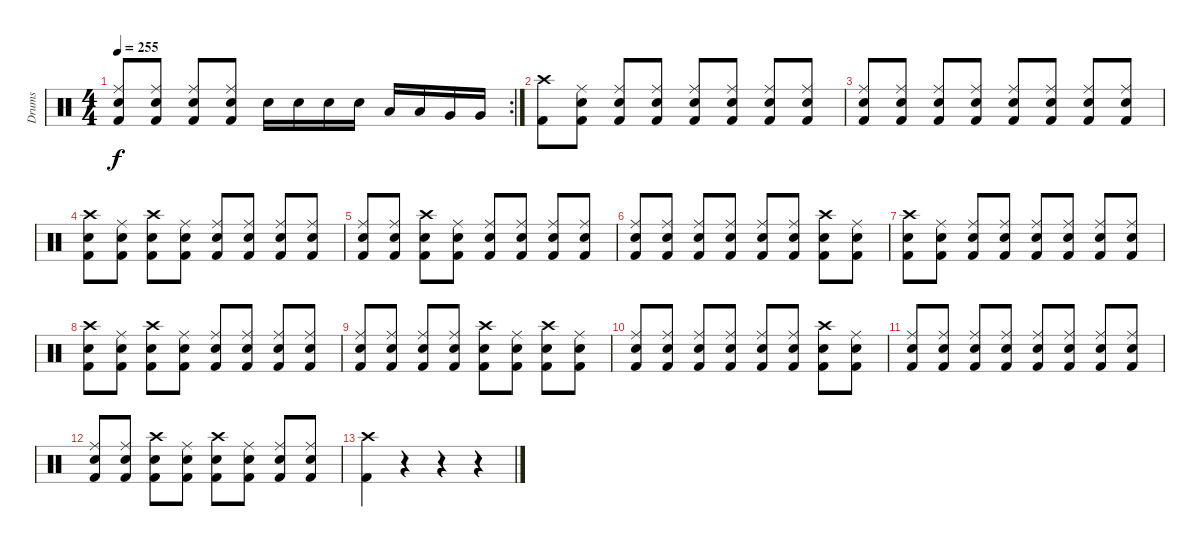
\track ("Drums" "Drums") {instrument percussion}
\staff {score}
\articulation defaults
\rc 2
\ts (4 4)
\tempo 255
\clef neutral
\ks c
("Snare (hit) 2" "Ride (middle)" "Kick (hit) 2").8{dy f} ("Snare (hit) 2" "Ride (middle)" "Kick (hit) 2").8 ("Snare (hit) 2" "Ride (middle)" "Kick (hit) 2").8 ("Snare (hit) 2" "Ride (middle)" "Kick (hit) 2").8 "Snare (hit) 2".16 "Snare (hit) 2".16 "Snare (hit) 2".16 "Snare (hit) 2".16 "Low Floor Tom (hit)".16 "Low Floor Tom (hit)".16 "Very Low Tom (hit)".16 "Very Low Tom (hit)".16 |
("Crash high (hit)" "Kick (hit) 2").8 ("Snare (hit) 2" "Ride (middle)" "Kick (hit) 2").8 ("Snare (hit) 2" "Ride (middle)" "Kick (hit) 2").8 ("Snare (hit) 2" "Ride (middle)" "Kick (hit) 2").8 ("Snare (hit) 2" "Ride (middle)" "Kick (hit) 2").8 ("Snare (hit) 2" "Ride (middle)" "Kick (hit) 2").8 ("Snare (hit) 2" "Ride (middle)" "Kick (hit) 2").8 ("Snare (hit) 2" "Ride (middle)" "Kick (hit) 2").8 |
("Snare (hit) 2" "Ride (middle)" "Kick (hit) 2").8 ("Snare (hit) 2" "Ride (middle)" "Kick (hit) 2").8 ("Snare (hit) 2" "Ride (middle)" "Kick (hit) 2").8 ("Snare (hit) 2" "Ride (middle)" "Kick (hit) 2").8 ("Snare (hit) 2" "Ride (middle)" "Kick (hit) 2").8 ("Snare (hit) 2" "Ride (middle)" "Kick (hit) 2").8 ("Snare (hit) 2" "Ride (middle)" "Kick (hit) 2").8 ("Snare (hit) 2" "Ride (middle)" "Kick (hit) 2").8 |
("Crash high (hit)" "Snare (hit) 2" "Kick (hit) 2").8 ("Snare (hit) 2" "Ride (middle)" "Kick (hit) 2").8 ("Snare (hit) 2" "Crash high (hit)" "Kick (hit) 2").8 ("Snare (hit) 2" "Ride (middle)" "Kick (hit) 2").8 ("Snare (hit) 2" "Ride (middle)" "Kick (hit) 2").8 ("Snare (hit) 2" "Ride (middle)" "Kick (hit) 2").8 ("Snare (hit) 2" "Ride (middle)" "Kick (hit) 2").8 ("Snare (hit) 2" "Ride (middle)" "Kick (hit) 2").8 |
("Ride (middle)" "Snare (hit) 2" "Kick (hit) 2").8 ("Snare (hit) 2" "Ride (middle)" "Kick (hit) 2").8 ("Snare (hit) 2" "Crash high (hit)" "Kick (hit) 2").8 ("Snare (hit) 2" "Ride (middle)" "Kick (hit) 2").8 ("Snare (hit) 2" "Ride (middle)" "Kick (hit) 2").8 ("Snare (hit) 2" "Ride (middle)" "Kick (hit) 2").8 ("Snare (hit) 2" "Ride (middle)" "Kick (hit) 2").8 ("Snare (hit) 2" "Ride (middle)" "Kick (hit) 2").8 |
("Snare (hit) 2" "Ride (middle)" "Kick (hit) 2").8 ("Snare (hit) 2" "Ride (middle)" "Kick (hit) 2").8 ("Snare (hit) 2" "Ride (middle)" "Kick (hit) 2").8 ("Snare (hit) 2" "Ride (middle)" "Kick (hit) 2").8 ("Snare (hit) 2" "Ride (middle)" "Kick (hit) 2").8 ("Snare (hit) 2" "Ride (middle)" "Kick (hit) 2").8 ("Snare (hit) 2" "Crash high (hit)" "Kick (hit) 2").8 ("Snare (hit) 2" "Ride (middle)" "Kick (hit) 2").8 |
("Snare (hit) 2" "Crash high (hit)" "Kick (hit) 2").8 ("Snare (hit) 2" "Ride (middle)" "Kick (hit) 2").8 ("Snare (hit) 2" "Ride (middle)" "Kick (hit) 2").8 ("Snare (hit) 2" "Ride (middle)" "Kick (hit) 2").8 ("Snare (hit) 2" "Ride (middle)" "Kick (hit) 2").8 ("Snare (hit) 2" "Ride (middle)" "Kick (hit) 2").8 ("Snare (hit) 2" "Ride (middle)" "Kick (hit) 2").8 ("Snare (hit) 2" "Ride (middle)" "Kick (hit) 2").8 |
("Snare (hit) 2" "Crash high (hit)" "Kick (hit) 2").8 ("Snare (hit) 2" "Ride (middle)" "Kick (hit) 2").8 ("Snare (hit) 2" "Crash high (hit)" "Kick (hit) 2").8 ("Snare (hit) 2" "Ride (middle)" "Kick (hit) 2").8 ("Snare (hit) 2" "Ride (middle)" "Kick (hit) 2").8 ("Snare (hit) 2" "Ride (middle)" "Kick (hit) 2").8 ("Snare (hit) 2" "Ride (middle)" "Kick (hit) 2").8 ("Snare (hit) 2" "Ride (middle)" "Kick (hit) 2").8 |
("Snare (hit) 2" "Ride (middle)" "Kick (hit) 2").8 ("Snare (hit) 2" "Ride (middle)" "Kick (hit) 2").8 ("Snare (hit) 2" "Ride (middle)" "Kick (hit) 2").8 ("Snare (hit) 2" "Ride (middle)" "Kick (hit) 2").8 ("Snare (hit) 2" "Crash high (hit)" "Kick (hit) 2").8 ("Snare (hit) 2" "Ride (middle)" "Kick (hit) 2").8 ("Snare (hit) 2" "Crash high (hit)" "Kick (hit) 2").8 ("Snare (hit) 2" "Ride (middle)" "Kick (hit) 2").8 |
("Snare (hit) 2" "Ride (middle)" "Kick (hit) 2").8 ("Snare (hit) 2" "Ride (middle)" "Kick (hit) 2").8 ("Snare (hit) 2" "Ride (middle)" "Kick (hit) 2").8 ("Snare (hit) 2" "Ride (middle)" "Kick (hit) 2").8 ("Snare (hit) 2" "Ride (middle)" "Kick (hit) 2").8 ("Snare (hit) 2" "Ride (middle)" "Kick (hit) 2").8 ("Snare (hit) 2" "Crash high (hit)" "Kick (hit) 2").8 ("Snare (hit) 2" "Ride (middle)" "Kick (hit) 2").8 |
("Snare (hit) 2" "Ride (middle)" "Kick (hit) 2").8 ("Snare (hit) 2" "Ride (middle)" "Kick (hit) 2").8 ("Snare (hit) 2" "Ride (middle)" "Kick (hit) 2").8 ("Snare (hit) 2" "Ride (middle)" "Kick (hit) 2").8 ("Snare (hit) 2" "Ride (middle)" "Kick (hit) 2").8 ("Snare (hit) 2" "Ride (middle)" "Kick (hit) 2").8 ("Snare (hit) 2" "Ride (middle)" "Kick (hit) 2").8 ("Snare (hit) 2" "Ride (middle)" "Kick (hit) 2").8 |
("Snare (hit) 2" "Ride (middle)" "Kick (hit) 2").8 ("Snare (hit) 2" "Ride (middle)" "Kick (hit) 2").8 ("Snare (hit) 2" "Crash high (hit)" "Kick (hit) 2").8 ("Snare (hit) 2" "Ride (middle)" "Kick (hit) 2").8 ("Snare (hit) 2" "Crash high (hit)" "Kick (hit) 2").8 ("Snare (hit) 2" "Ride (middle)" "Kick (hit) 2").8 ("Snare (hit) 2" "Ride (middle)" "Kick (hit) 2").8 ("Snare (hit) 2" "Ride (middle)" "Kick (hit) 2").8 |
("Crash high (hit)" "Kick (hit) 2").4 r.4 r.4 r.4
